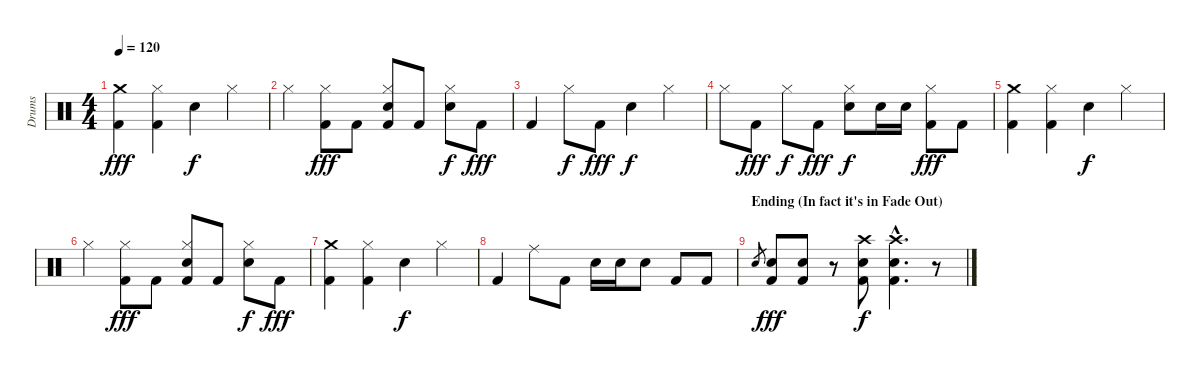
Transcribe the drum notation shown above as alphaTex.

\track ("Drums" "Drums") {instrument percussion}
\staff {score}
\articulation defaults
\ts (4 4)
\tempo 120
\clef neutral
\ks c
("Kick (hit) 2" "Crash medium (hit)").4{dy fff} ("Kick (hit) 2" "Hi-Hat (closed)").4 "Snare (hit) 2".4{dy f} "Hi-Hat (closed)".4 |
"Hi-Hat (closed)".4 ("Kick (hit) 2" "Hi-Hat (closed)").8{dy fff} "Kick (hit) 2".8 ("Kick (hit) 2" "Hi-Hat (closed)" "Snare (hit) 2").8 "Kick (hit) 2".8 ("Hi-Hat (closed)" "Snare (hit) 2").8{dy f} "Kick (hit) 2".8{dy fff} |
"Kick (hit) 2".4 "Hi-Hat (closed)".8{dy f} "Kick (hit) 2".8{dy fff} "Snare (hit) 2".4{dy f} "Hi-Hat (closed)".4 |
"Hi-Hat (closed)".8 "Kick (hit) 2".8{dy fff} "Hi-Hat (closed)".8{dy f} "Kick (hit) 2".8{dy fff} ("Hi-Hat (closed)" "Snare (hit) 2").8{dy f} "Snare (hit) 2".16 "Snare (hit) 2".16 ("Kick (hit) 2" "Hi-Hat (closed)").8{dy fff} "Kick (hit) 2".8 |
("Kick (hit) 2" "Crash medium (hit)").4 ("Kick (hit) 2" "Hi-Hat (closed)").4 "Snare (hit) 2".4{dy f} "Hi-Hat (closed)".4 |
"Hi-Hat (closed)".4 ("Kick (hit) 2" "Hi-Hat (closed)").8{dy fff} "Kick (hit) 2".8 ("Kick (hit) 2" "Hi-Hat (closed)" "Snare (hit) 2").8 "Kick (hit) 2".8 ("Hi-Hat (closed)" "Snare (hit) 2").8{dy f} "Kick (hit) 2".8{dy fff} |
("Kick (hit) 2" "Crash medium (hit)").4 ("Kick (hit) 2" "Hi-Hat (closed)").4 "Snare (hit) 2".4{dy f} "Hi-Hat (closed)".4 |
"Kick (hit) 2".4 "Ride (middle)".8 "Kick (hit) 2".8 "Snare (hit) 2".16 "Snare (hit) 2".16 "Snare (hit) 2".8 "Kick (hit) 2".8 "Kick (hit) 2".8 |
\section ("" "Ending (In fact it's in Fade Out)")
"Snare (hit) 2".8{gr} ("Kick (hit) 2" "Snare (hit) 2").8{dy fff} ("Kick (hit) 2" "Snare (hit) 2").8 r.8 ("Kick (hit) 2" "Snare (hit) 2" "Crash high (hit)").8{dy f} ("Kick (hit) 2"{hac} "Snare (hit) 2"{hac} "Crash high (hit)"{hac}).4{d} r.8
